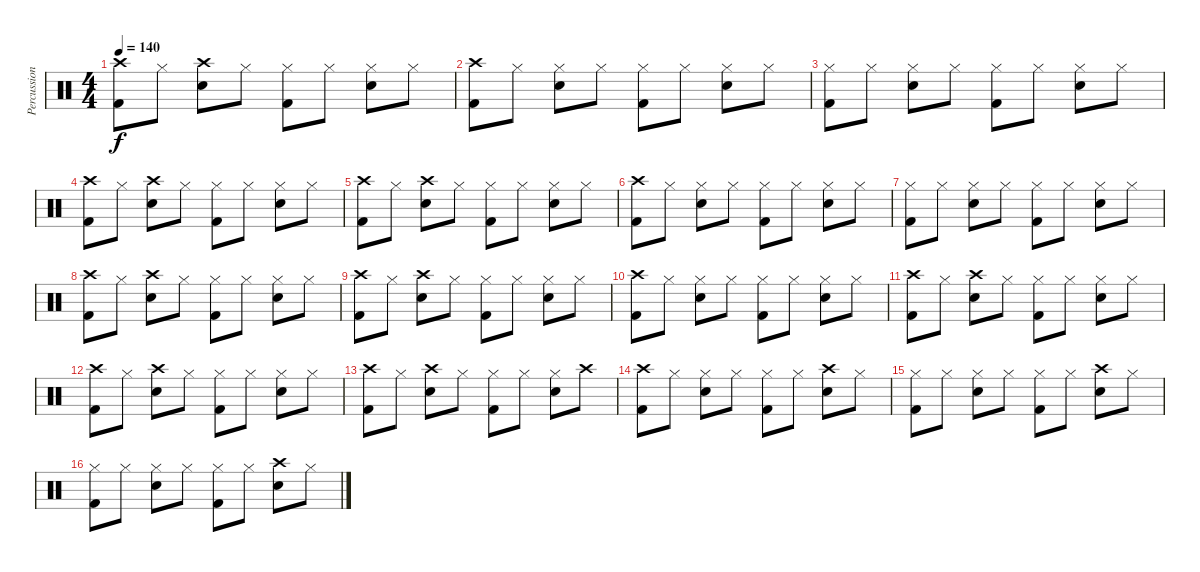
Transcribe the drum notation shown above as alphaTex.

\track ("Percussion" "Percussion") {instrument percussion}
\staff {score}
\articulation defaults
\ts (4 4)
\tempo 140
\clef neutral
\ks c
("Crash high (hit)" "Kick (hit) 2").8{dy f} "Hi-Hat (closed)".8 ("Crash high (hit)" "Snare (hit) 2").8 "Hi-Hat (closed)".8 ("Hi-Hat (closed)" "Kick (hit) 2").8 "Hi-Hat (closed)".8 ("Hi-Hat (closed)" "Snare (hit) 2").8 "Hi-Hat (closed)".8 |
("Crash high (hit)" "Kick (hit) 2").8 "Hi-Hat (closed)".8 ("Hi-Hat (closed)" "Snare (hit) 2").8 "Hi-Hat (closed)".8 ("Hi-Hat (closed)" "Kick (hit) 2").8 "Hi-Hat (closed)".8 ("Hi-Hat (closed)" "Snare (hit) 2").8 "Hi-Hat (closed)".8 |
("Hi-Hat (closed)" "Kick (hit) 2").8 "Hi-Hat (closed)".8 ("Hi-Hat (closed)" "Snare (hit) 2").8 "Hi-Hat (closed)".8 ("Hi-Hat (closed)" "Kick (hit) 2").8 "Hi-Hat (closed)".8 ("Hi-Hat (closed)" "Snare (hit) 2").8 "Hi-Hat (closed)".8 |
("Crash high (hit)" "Kick (hit) 2").8 "Hi-Hat (closed)".8 ("Crash high (hit)" "Snare (hit) 2").8 "Hi-Hat (closed)".8 ("Hi-Hat (closed)" "Kick (hit) 2").8 "Hi-Hat (closed)".8 ("Hi-Hat (closed)" "Snare (hit) 2").8 "Hi-Hat (closed)".8 |
("Crash high (hit)" "Kick (hit) 2").8 "Hi-Hat (closed)".8 ("Crash high (hit)" "Snare (hit) 2").8 "Hi-Hat (closed)".8 ("Hi-Hat (closed)" "Kick (hit) 2").8 "Hi-Hat (closed)".8 ("Hi-Hat (closed)" "Snare (hit) 2").8 "Hi-Hat (closed)".8 |
("Crash high (hit)" "Kick (hit) 2").8 "Hi-Hat (closed)".8 ("Hi-Hat (closed)" "Snare (hit) 2").8 "Hi-Hat (closed)".8 ("Hi-Hat (closed)" "Kick (hit) 2").8 "Hi-Hat (closed)".8 ("Hi-Hat (closed)" "Snare (hit) 2").8 "Hi-Hat (closed)".8 |
("Hi-Hat (closed)" "Kick (hit) 2").8 "Hi-Hat (closed)".8 ("Hi-Hat (closed)" "Snare (hit) 2").8 "Hi-Hat (closed)".8 ("Hi-Hat (closed)" "Kick (hit) 2").8 "Hi-Hat (closed)".8 ("Hi-Hat (closed)" "Snare (hit) 2").8 "Hi-Hat (closed)".8 |
("Crash high (hit)" "Kick (hit) 2").8 "Hi-Hat (closed)".8 ("Crash high (hit)" "Snare (hit) 2").8 "Hi-Hat (closed)".8 ("Hi-Hat (closed)" "Kick (hit) 2").8 "Hi-Hat (closed)".8 ("Hi-Hat (closed)" "Snare (hit) 2").8 "Hi-Hat (closed)".8 |
("Crash high (hit)" "Kick (hit) 2").8 "Hi-Hat (closed)".8 ("Crash high (hit)" "Snare (hit) 2").8 "Hi-Hat (closed)".8 ("Hi-Hat (closed)" "Kick (hit) 2").8 "Hi-Hat (closed)".8 ("Hi-Hat (closed)" "Snare (hit) 2").8 "Hi-Hat (closed)".8 |
("Crash high (hit)" "Kick (hit) 2").8 "Hi-Hat (closed)".8 ("Hi-Hat (closed)" "Snare (hit) 2").8 "Hi-Hat (closed)".8 ("Hi-Hat (closed)" "Kick (hit) 2").8 "Hi-Hat (closed)".8 ("Hi-Hat (closed)" "Snare (hit) 2").8 "Hi-Hat (closed)".8 |
("Crash high (hit)" "Kick (hit) 2").8 "Hi-Hat (closed)".8 ("Crash high (hit)" "Snare (hit) 2").8 "Hi-Hat (closed)".8 ("Hi-Hat (closed)" "Kick (hit) 2").8 "Hi-Hat (closed)".8 ("Hi-Hat (closed)" "Snare (hit) 2").8 "Hi-Hat (closed)".8 |
("Crash high (hit)" "Kick (hit) 2").8 "Hi-Hat (closed)".8 ("Crash high (hit)" "Snare (hit) 2").8 "Hi-Hat (closed)".8 ("Hi-Hat (closed)" "Kick (hit) 2").8 "Hi-Hat (closed)".8 ("Hi-Hat (closed)" "Snare (hit) 2").8 "Hi-Hat (closed)".8 |
("Crash high (hit)" "Kick (hit) 2").8 "Hi-Hat (closed)".8 ("Crash high (hit)" "Snare (hit) 2").8 "Hi-Hat (closed)".8 ("Hi-Hat (closed)" "Kick (hit) 2").8 "Hi-Hat (closed)".8 ("Hi-Hat (closed)" "Snare (hit) 2").8 "Crash high (hit)".8 |
("Crash high (hit)" "Kick (hit) 2").8 "Hi-Hat (closed)".8 ("Hi-Hat (closed)" "Snare (hit) 2").8 "Hi-Hat (closed)".8 ("Hi-Hat (closed)" "Kick (hit) 2").8 "Hi-Hat (closed)".8 ("Crash high (hit)" "Snare (hit) 2").8 "Hi-Hat (closed)".8 |
("Hi-Hat (closed)" "Kick (hit) 2").8 "Hi-Hat (closed)".8 ("Hi-Hat (closed)" "Snare (hit) 2").8 "Hi-Hat (closed)".8 ("Hi-Hat (closed)" "Kick (hit) 2").8 "Hi-Hat (closed)".8 ("Crash high (hit)" "Snare (hit) 2").8 "Hi-Hat (closed)".8 |
("Hi-Hat (closed)" "Kick (hit) 2").8 "Hi-Hat (closed)".8 ("Hi-Hat (closed)" "Snare (hit) 2").8 "Hi-Hat (closed)".8 ("Hi-Hat (closed)" "Kick (hit) 2").8 "Hi-Hat (closed)".8 ("Crash high (hit)" "Snare (hit) 2").8 "Hi-Hat (closed)".8
